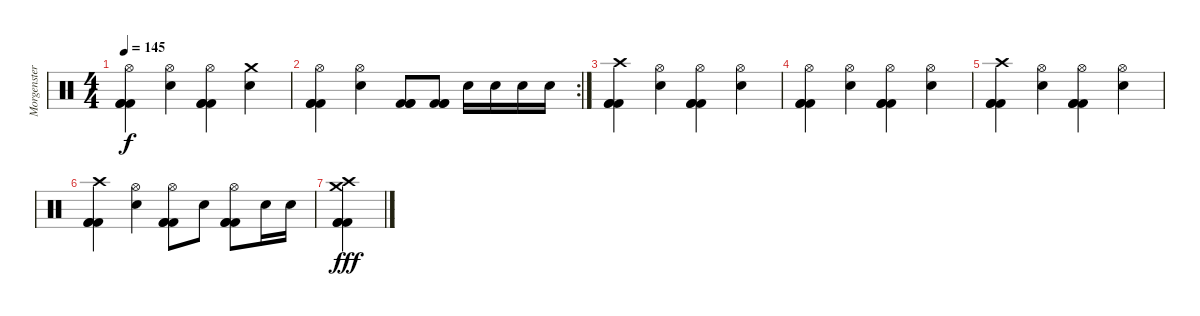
\track ("Morgenstern (Schlagzeug)" "Morgenster") {instrument percussion}
\staff {score}
\articulation defaults
\ts (4 4)
\tempo 145
\clef neutral
\ks c
("Hi-Hat (open)" "Kick (hit) 2" "Kick (hit) 2" "Kick (hit) 2").4{dy f} ("Hi-Hat (open)" "Snare (hit) 2").4 ("Hi-Hat (open)" "Kick (hit) 2" "Kick (hit) 2" "Kick (hit) 2").4 ("Crash medium (hit)" "Snare (hit) 2").4 |
\rc 2
("Hi-Hat (open)" "Kick (hit) 2" "Kick (hit) 2" "Kick (hit) 2").4 ("Hi-Hat (open)" "Snare (hit) 2").4 ("Kick (hit) 2" "Kick (hit) 2" "Kick (hit) 2").8 ("Kick (hit) 2" "Kick (hit) 2" "Kick (hit) 2").8 "Snare (hit) 2".16 "Snare (hit) 2".16 "Snare (hit) 2".16 "Snare (hit) 2".16 |
("Crash high (hit)" "Kick (hit) 2" "Kick (hit) 2" "Kick (hit) 2").4 ("Hi-Hat (open)" "Snare (hit) 2").4 ("Hi-Hat (open)" "Kick (hit) 2" "Kick (hit) 2" "Kick (hit) 2").4 ("Hi-Hat (open)" "Snare (hit) 2").4 |
("Hi-Hat (open)" "Kick (hit) 2" "Kick (hit) 2" "Kick (hit) 2").4 ("Hi-Hat (open)" "Snare (hit) 2").4 ("Hi-Hat (open)" "Kick (hit) 2" "Kick (hit) 2" "Kick (hit) 2").4 ("Hi-Hat (open)" "Snare (hit) 2").4 |
("Crash high (hit)" "Kick (hit) 2" "Kick (hit) 2" "Kick (hit) 2").4 ("Hi-Hat (open)" "Snare (hit) 2").4 ("Hi-Hat (open)" "Kick (hit) 2" "Kick (hit) 2" "Kick (hit) 2").4 ("Hi-Hat (open)" "Snare (hit) 2").4 |
("Crash high (hit)" "Kick (hit) 2" "Kick (hit) 2" "Kick (hit) 2").4 ("Hi-Hat (open)" "Snare (hit) 2").4 ("Hi-Hat (open)" "Kick (hit) 2" "Kick (hit) 2" "Kick (hit) 2").8 "Snare (hit) 2".8 ("Hi-Hat (open)" "Kick (hit) 2" "Kick (hit) 2" "Kick (hit) 2").8 "Snare (hit) 2".16 "Snare (hit) 2".16 |
("Crash medium (hit)" "Crash high (hit)" "Kick (hit) 2" "Kick (hit) 2" "Kick (hit) 2").4{dy fff}
